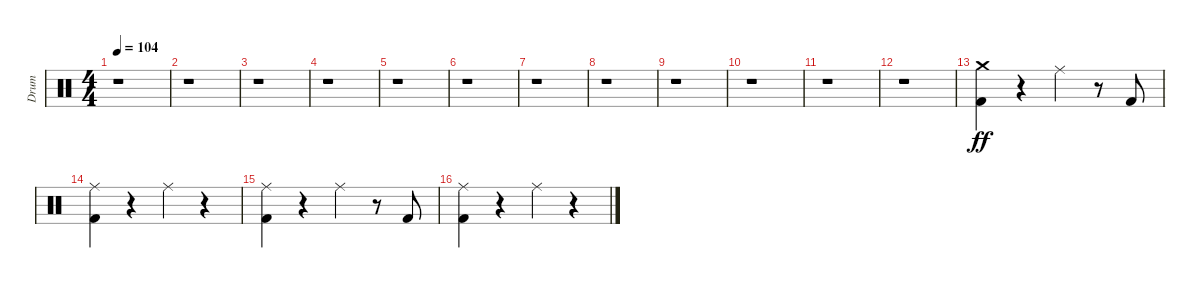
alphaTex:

\track ("Drum" "Drum") {instrument percussion}
\staff {score}
\articulation defaults
\ts (4 4)
\tempo 104
\clef neutral
\ks c
r.1{dy mf} |
r.1 |
r.1 |
r.1 |
r.1 |
r.1 |
r.1 |
r.1 |
r.1 |
r.1 |
r.1 |
r.1 |
("Crash medium (hit)" "Kick (hit) 2").4{dy ff} r.4 "Ride (middle)".4 r.8 "Kick (hit) 2".8 |
("Ride (middle)" "Kick (hit) 2").4 r.4 "Ride (middle)".4 r.4 |
("Ride (middle)" "Kick (hit) 2").4 r.4 "Ride (middle)".4 r.8 "Kick (hit) 2".8 |
("Ride (middle)" "Kick (hit) 2").4 r.4 "Ride (middle)".4 r.4
